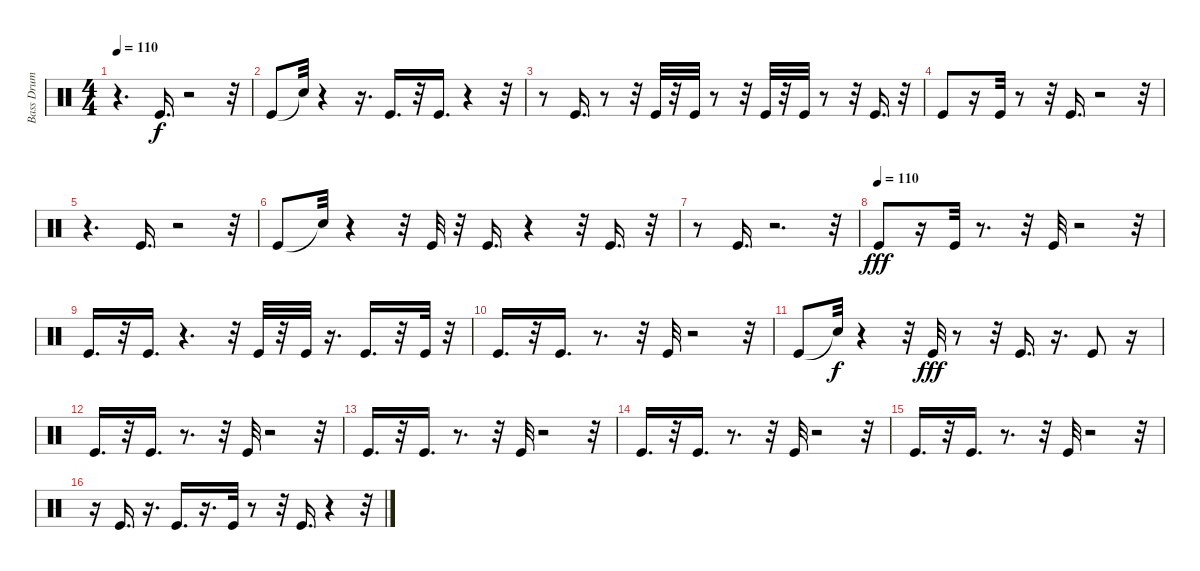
\track ("Bass Drum" "Bass Drum") {instrument percussion}
\staff {score}
\articulation defaults
\ts (4 4)
\tempo 110
\clef neutral
\ks c
r.4{d dy f} "Kick (hit)".16{d} r.2 r.32 |
"Kick (hit)".8 "Snare (hit)"{t}.32 r.4 r.16{d} "Kick (hit)".16{d} r.32 "Kick (hit)".16{d} r.4 r.32 |
r.8 "Kick (hit)".16{d} r.8 r.32 "Kick (hit)".32 r.32 "Kick (hit)".32 r.8 r.32 "Kick (hit)".32 r.32 "Kick (hit)".32 r.8 r.32 "Kick (hit)".16{d} r.32 |
"Kick (hit)".8 r.16 "Kick (hit)".32 r.8 r.32 "Kick (hit)".16{d} r.2 r.32 |
r.4{d} "Kick (hit)".16{d} r.2 r.32 |
"Kick (hit)".8 "Snare (hit)"{t}.32 r.4 r.32 "Kick (hit)".32 r.32 "Kick (hit)".16{d} r.4 r.32 "Kick (hit)".16{d} r.32 |
r.8 "Kick (hit)".16{d} r.2{d} r.32 |
\tempo (110)
"Kick (hit)".8{dy fff} r.16 "Kick (hit)".32 r.8{d} r.32 "Kick (hit)".32 r.2 r.32 |
"Kick (hit)".16{d} r.32 "Kick (hit)".16{d} r.4{d} r.32 "Kick (hit)".32 r.32 "Kick (hit)".32 r.16{d} "Kick (hit)".16{d} r.32 "Kick (hit)".32 r.32 |
"Kick (hit)".16{d} r.32 "Kick (hit)".16{d} r.8{d} r.32 "Kick (hit)".32 r.2 r.32 |
"Kick (hit)".8 "Snare (hit)"{t}.32{dy f} r.4 r.32 "Kick (hit)".32{dy fff} r.8 r.32 "Kick (hit)".16{d} r.16{d} "Kick (hit)".8 r.16 |
"Kick (hit)".16{d} r.32 "Kick (hit)".16{d} r.8{d} r.32 "Kick (hit)".32 r.2 r.32 |
"Kick (hit)".16{d} r.32 "Kick (hit)".16{d} r.8{d} r.32 "Kick (hit)".32 r.2 r.32 |
"Kick (hit)".16{d} r.32 "Kick (hit)".16{d} r.8{d} r.32 "Kick (hit)".32 r.2 r.32 |
"Kick (hit)".16{d} r.32 "Kick (hit)".16{d} r.8{d} r.32 "Kick (hit)".32 r.2 r.32 |
r.16 "Kick (hit)".16{d} r.16{d} "Kick (hit)".16{d} r.16{d} "Kick (hit)".32 r.8 r.32 "Kick (hit)".16{d} r.4 r.32
